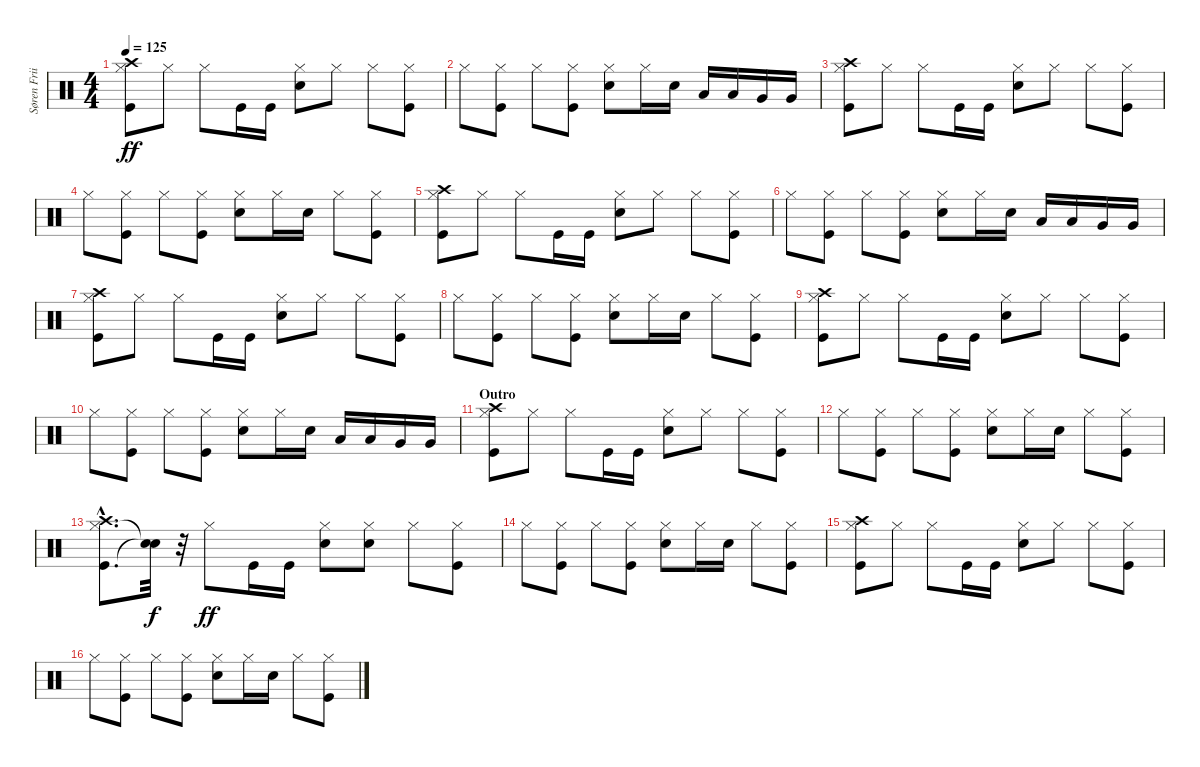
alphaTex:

\track ("Søren Friis - Drums" "Søren Frii") {instrument percussion}
\staff {score}
\articulation defaults
\ts (4 4)
\tempo 125
\clef neutral
\ks c
("Kick (hit)" "Hi-Hat (closed)" "Crash high (hit)").8{dy ff} "Hi-Hat (closed)".8 "Hi-Hat (closed)".8 "Kick (hit)".16 "Kick (hit)".16 ("Snare (hit) 2" "Hi-Hat (closed)").8 "Hi-Hat (closed)".8 "Hi-Hat (closed)".8 ("Kick (hit)" "Hi-Hat (closed)").8 |
"Hi-Hat (closed)".8 ("Kick (hit)" "Hi-Hat (closed)").8 "Hi-Hat (closed)".8 ("Kick (hit)" "Hi-Hat (closed)").8 ("Snare (hit) 2" "Hi-Hat (closed)").8 "Hi-Hat (closed)".16 "Snare (hit) 2".16 "Low Tom (hit)".16 "Low Tom (hit)".16 "Very Low Tom (hit)".16 "Very Low Tom (hit)".16 |
("Kick (hit)" "Hi-Hat (closed)" "Crash high (hit)").8 "Hi-Hat (closed)".8 "Hi-Hat (closed)".8 "Kick (hit)".16 "Kick (hit)".16 ("Snare (hit) 2" "Hi-Hat (closed)").8 "Hi-Hat (closed)".8 "Hi-Hat (closed)".8 ("Kick (hit)" "Hi-Hat (closed)").8 |
"Hi-Hat (closed)".8 ("Kick (hit)" "Hi-Hat (closed)").8 "Hi-Hat (closed)".8 ("Kick (hit)" "Hi-Hat (closed)").8 ("Snare (hit) 2" "Hi-Hat (closed)").8 "Hi-Hat (closed)".16 "Snare (hit) 2".16 "Hi-Hat (closed)".8 ("Kick (hit)" "Hi-Hat (closed)").8 |
("Kick (hit)" "Hi-Hat (closed)" "Crash high (hit)").8 "Hi-Hat (closed)".8 "Hi-Hat (closed)".8 "Kick (hit)".16 "Kick (hit)".16 ("Snare (hit) 2" "Hi-Hat (closed)").8 "Hi-Hat (closed)".8 "Hi-Hat (closed)".8 ("Kick (hit)" "Hi-Hat (closed)").8 |
"Hi-Hat (closed)".8 ("Kick (hit)" "Hi-Hat (closed)").8 "Hi-Hat (closed)".8 ("Kick (hit)" "Hi-Hat (closed)").8 ("Snare (hit) 2" "Hi-Hat (closed)").8 "Hi-Hat (closed)".16 "Snare (hit) 2".16 "Low Tom (hit)".16 "Low Tom (hit)".16 "Very Low Tom (hit)".16 "Very Low Tom (hit)".16 |
("Kick (hit)" "Hi-Hat (closed)" "Crash high (hit)").8 "Hi-Hat (closed)".8 "Hi-Hat (closed)".8 "Kick (hit)".16 "Kick (hit)".16 ("Snare (hit) 2" "Hi-Hat (closed)").8 "Hi-Hat (closed)".8 "Hi-Hat (closed)".8 ("Kick (hit)" "Hi-Hat (closed)").8 |
"Hi-Hat (closed)".8 ("Kick (hit)" "Hi-Hat (closed)").8 "Hi-Hat (closed)".8 ("Kick (hit)" "Hi-Hat (closed)").8 ("Snare (hit) 2" "Hi-Hat (closed)").8 "Hi-Hat (closed)".16 "Snare (hit) 2".16 "Hi-Hat (closed)".8 ("Kick (hit)" "Hi-Hat (closed)").8 |
("Kick (hit)" "Hi-Hat (closed)" "Crash high (hit)").8 "Hi-Hat (closed)".8 "Hi-Hat (closed)".8 "Kick (hit)".16 "Kick (hit)".16 ("Snare (hit) 2" "Hi-Hat (closed)").8 "Hi-Hat (closed)".8 "Hi-Hat (closed)".8 ("Kick (hit)" "Hi-Hat (closed)").8 |
"Hi-Hat (closed)".8 ("Kick (hit)" "Hi-Hat (closed)").8 "Hi-Hat (closed)".8 ("Kick (hit)" "Hi-Hat (closed)").8 ("Snare (hit) 2" "Hi-Hat (closed)").8 "Hi-Hat (closed)".16 "Snare (hit) 2".16 "Low Tom (hit)".16 "Low Tom (hit)".16 "Very Low Tom (hit)".16 "Very Low Tom (hit)".16 |
\section ("" "Outro")
("Kick (hit)" "Hi-Hat (closed)" "Crash high (hit)").8 "Hi-Hat (closed)".8 "Hi-Hat (closed)".8 "Kick (hit)".16 "Kick (hit)".16 ("Snare (hit) 2" "Hi-Hat (closed)").8 "Hi-Hat (closed)".8 "Hi-Hat (closed)".8 ("Kick (hit)" "Hi-Hat (closed)").8 |
"Hi-Hat (closed)".8 ("Kick (hit)" "Hi-Hat (closed)").8 "Hi-Hat (closed)".8 ("Kick (hit)" "Hi-Hat (closed)").8 ("Snare (hit) 2" "Hi-Hat (closed)").8 "Hi-Hat (closed)".16 "Snare (hit) 2".16 "Hi-Hat (closed)".8 ("Kick (hit)" "Hi-Hat (closed)").8 |
("Kick (hit)"{hac} "Hi-Hat (closed)"{hac} "Crash high (hit)"{hac}).8{d} ("Snare (hit)"{t} "Snare (hit)"{t}).32{dy f} r.32 "Hi-Hat (closed)".8{dy ff} "Kick (hit)".16 "Kick (hit)".16 ("Snare (hit) 2" "Hi-Hat (closed)").8 ("Snare (hit) 2" "Hi-Hat (closed)").8 "Hi-Hat (closed)".8 ("Kick (hit)" "Hi-Hat (closed)").8 |
"Hi-Hat (closed)".8 ("Kick (hit)" "Hi-Hat (closed)").8 "Hi-Hat (closed)".8 ("Kick (hit)" "Hi-Hat (closed)").8 ("Snare (hit) 2" "Hi-Hat (closed)").8 "Hi-Hat (closed)".16 "Snare (hit) 2".16 "Hi-Hat (closed)".8 ("Kick (hit)" "Hi-Hat (closed)").8 |
("Kick (hit)" "Hi-Hat (closed)" "Crash high (hit)").8 "Hi-Hat (closed)".8 "Hi-Hat (closed)".8 "Kick (hit)".16 "Kick (hit)".16 ("Snare (hit) 2" "Hi-Hat (closed)").8 "Hi-Hat (closed)".8 "Hi-Hat (closed)".8 ("Kick (hit)" "Hi-Hat (closed)").8 |
"Hi-Hat (closed)".8 ("Kick (hit)" "Hi-Hat (closed)").8 "Hi-Hat (closed)".8 ("Kick (hit)" "Hi-Hat (closed)").8 ("Snare (hit) 2" "Hi-Hat (closed)").8 "Hi-Hat (closed)".16 "Snare (hit) 2".16 "Hi-Hat (closed)".8 ("Kick (hit)" "Hi-Hat (closed)").8
